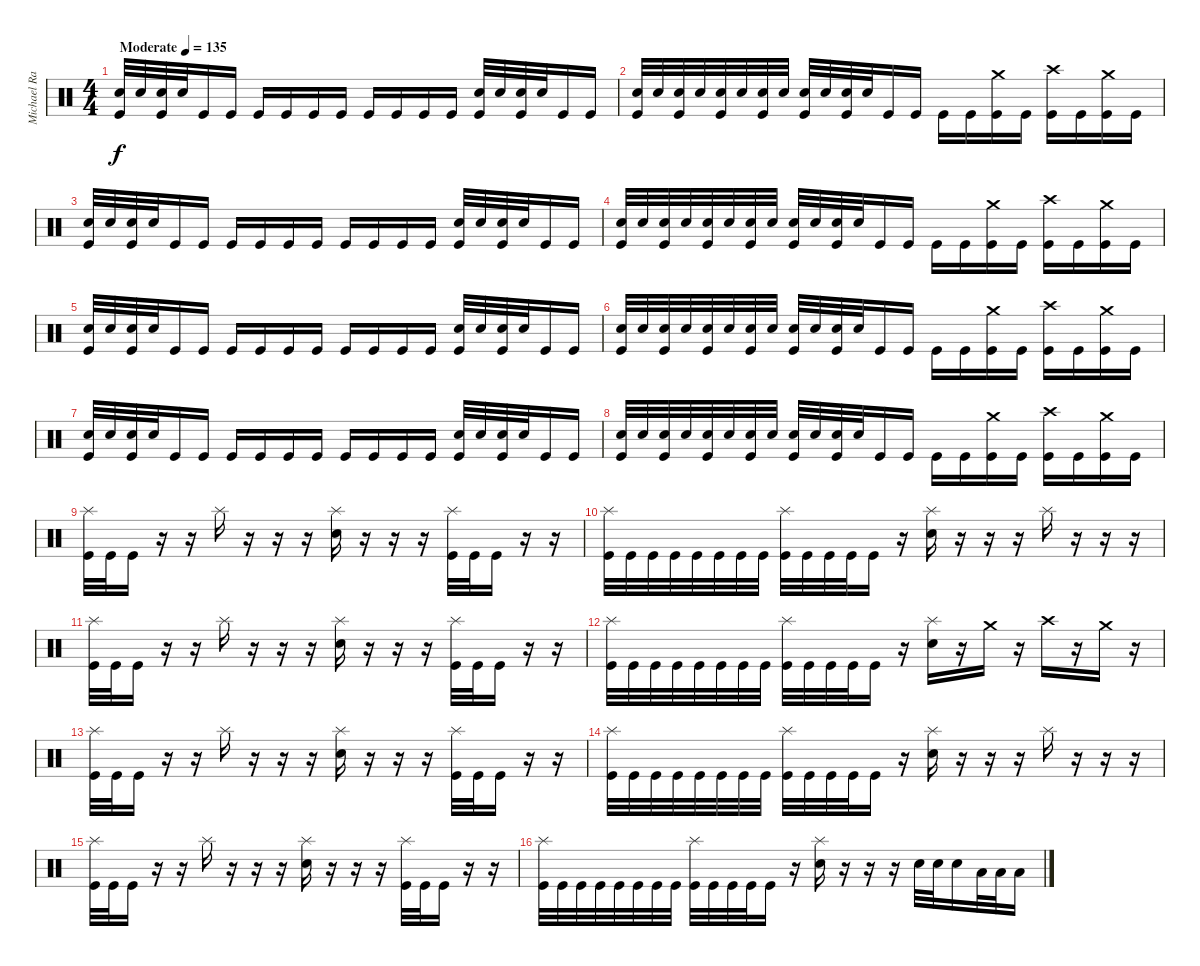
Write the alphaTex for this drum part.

\track ("Michael Ranne" "Michael Ra") {instrument percussion}
\staff {score}
\articulation defaults
\ts (4 4)
\tempo (135 "Moderate")
\clef neutral
\ks c
("Snare (hit) 2" "Kick (hit)").32{dy f} "Snare (hit) 2".32 ("Snare (hit) 2" "Kick (hit)").32 "Snare (hit) 2".32 "Kick (hit)".16 "Kick (hit)".16 "Kick (hit)".16 "Kick (hit)".16 "Kick (hit)".16 "Kick (hit)".16 "Kick (hit)".16 "Kick (hit)".16 "Kick (hit)".16 "Kick (hit)".16 ("Snare (hit) 2" "Kick (hit)").32 "Snare (hit) 2".32 ("Snare (hit) 2" "Kick (hit)").32 "Snare (hit) 2".32 "Kick (hit)".16 "Kick (hit)".16 |
("Snare (hit) 2" "Kick (hit)").32 "Snare (hit) 2".32 ("Snare (hit) 2" "Kick (hit)").32 "Snare (hit) 2".32 ("Snare (hit) 2" "Kick (hit)").32 "Snare (hit) 2".32 ("Snare (hit) 2" "Kick (hit)").32 "Snare (hit) 2".32 ("Snare (hit) 2" "Kick (hit)").32 "Snare (hit) 2".32 ("Snare (hit) 2" "Kick (hit)").32 "Snare (hit) 2".32 "Kick (hit)".16 "Kick (hit)".16 "Kick (hit)".16 "Kick (hit)".16 ("Crash medium (hit)" "Kick (hit)").16 "Kick (hit)".16 ("Crash high (hit)" "Kick (hit)").16 "Kick (hit)".16 ("Crash medium (hit)" "Kick (hit)").16 "Kick (hit)".16 |
("Snare (hit) 2" "Kick (hit)").32 "Snare (hit) 2".32 ("Snare (hit) 2" "Kick (hit)").32 "Snare (hit) 2".32 "Kick (hit)".16 "Kick (hit)".16 "Kick (hit)".16 "Kick (hit)".16 "Kick (hit)".16 "Kick (hit)".16 "Kick (hit)".16 "Kick (hit)".16 "Kick (hit)".16 "Kick (hit)".16 ("Snare (hit) 2" "Kick (hit)").32 "Snare (hit) 2".32 ("Snare (hit) 2" "Kick (hit)").32 "Snare (hit) 2".32 "Kick (hit)".16 "Kick (hit)".16 |
("Snare (hit) 2" "Kick (hit)").32 "Snare (hit) 2".32 ("Snare (hit) 2" "Kick (hit)").32 "Snare (hit) 2".32 ("Snare (hit) 2" "Kick (hit)").32 "Snare (hit) 2".32 ("Snare (hit) 2" "Kick (hit)").32 "Snare (hit) 2".32 ("Snare (hit) 2" "Kick (hit)").32 "Snare (hit) 2".32 ("Snare (hit) 2" "Kick (hit)").32 "Snare (hit) 2".32 "Kick (hit)".16 "Kick (hit)".16 "Kick (hit)".16 "Kick (hit)".16 ("Crash medium (hit)" "Kick (hit)").16 "Kick (hit)".16 ("Crash high (hit)" "Kick (hit)").16 "Kick (hit)".16 ("Crash medium (hit)" "Kick (hit)").16 "Kick (hit)".16 |
("Snare (hit) 2" "Kick (hit)").32 "Snare (hit) 2".32 ("Snare (hit) 2" "Kick (hit)").32 "Snare (hit) 2".32 "Kick (hit)".16 "Kick (hit)".16 "Kick (hit)".16 "Kick (hit)".16 "Kick (hit)".16 "Kick (hit)".16 "Kick (hit)".16 "Kick (hit)".16 "Kick (hit)".16 "Kick (hit)".16 ("Snare (hit) 2" "Kick (hit)").32 "Snare (hit) 2".32 ("Snare (hit) 2" "Kick (hit)").32 "Snare (hit) 2".32 "Kick (hit)".16 "Kick (hit)".16 |
("Snare (hit) 2" "Kick (hit)").32 "Snare (hit) 2".32 ("Snare (hit) 2" "Kick (hit)").32 "Snare (hit) 2".32 ("Snare (hit) 2" "Kick (hit)").32 "Snare (hit) 2".32 ("Snare (hit) 2" "Kick (hit)").32 "Snare (hit) 2".32 ("Snare (hit) 2" "Kick (hit)").32 "Snare (hit) 2".32 ("Snare (hit) 2" "Kick (hit)").32 "Snare (hit) 2".32 "Kick (hit)".16 "Kick (hit)".16 "Kick (hit)".16 "Kick (hit)".16 ("Crash medium (hit)" "Kick (hit)").16 "Kick (hit)".16 ("Crash high (hit)" "Kick (hit)").16 "Kick (hit)".16 ("Crash medium (hit)" "Kick (hit)").16 "Kick (hit)".16 |
("Snare (hit) 2" "Kick (hit)").32 "Snare (hit) 2".32 ("Snare (hit) 2" "Kick (hit)").32 "Snare (hit) 2".32 "Kick (hit)".16 "Kick (hit)".16 "Kick (hit)".16 "Kick (hit)".16 "Kick (hit)".16 "Kick (hit)".16 "Kick (hit)".16 "Kick (hit)".16 "Kick (hit)".16 "Kick (hit)".16 ("Snare (hit) 2" "Kick (hit)").32 "Snare (hit) 2".32 ("Snare (hit) 2" "Kick (hit)").32 "Snare (hit) 2".32 "Kick (hit)".16 "Kick (hit)".16 |
("Snare (hit) 2" "Kick (hit)").32 "Snare (hit) 2".32 ("Snare (hit) 2" "Kick (hit)").32 "Snare (hit) 2".32 ("Snare (hit) 2" "Kick (hit)").32 "Snare (hit) 2".32 ("Snare (hit) 2" "Kick (hit)").32 "Snare (hit) 2".32 ("Snare (hit) 2" "Kick (hit)").32 "Snare (hit) 2".32 ("Snare (hit) 2" "Kick (hit)").32 "Snare (hit) 2".32 "Kick (hit)".16 "Kick (hit)".16 "Kick (hit)".16 "Kick (hit)".16 ("Crash medium (hit)" "Kick (hit)").16 "Kick (hit)".16 ("Crash high (hit)" "Kick (hit)").16 "Kick (hit)".16 ("Crash medium (hit)" "Kick (hit)").16 "Kick (hit)".16 |
("Splash (hit)" "Kick (hit)").32 "Kick (hit)".32 "Kick (hit)".16 r.16 r.16 "Splash (hit)".16 r.16 r.16 r.16 ("Splash (hit)" "Snare (hit) 2").16 r.16 r.16 r.16 ("Splash (hit)" "Kick (hit)").32 "Kick (hit)".32 "Kick (hit)".16 r.16 r.16 |
("Splash (hit)" "Kick (hit)").32 "Kick (hit)".32 "Kick (hit)".32 "Kick (hit)".32 "Kick (hit)".32 "Kick (hit)".32 "Kick (hit)".32 "Kick (hit)".32 ("Splash (hit)" "Kick (hit)").32 "Kick (hit)".32 "Kick (hit)".32 "Kick (hit)".32 "Kick (hit)".16 r.16 ("Splash (hit)" "Snare (hit) 2").16 r.16 r.16 r.16 "Splash (hit)".16 r.16 r.16 r.16 |
("Splash (hit)" "Kick (hit)").32 "Kick (hit)".32 "Kick (hit)".16 r.16 r.16 "Splash (hit)".16 r.16 r.16 r.16 ("Splash (hit)" "Snare (hit) 2").16 r.16 r.16 r.16 ("Splash (hit)" "Kick (hit)").32 "Kick (hit)".32 "Kick (hit)".16 r.16 r.16 |
("Splash (hit)" "Kick (hit)").32 "Kick (hit)".32 "Kick (hit)".32 "Kick (hit)".32 "Kick (hit)".32 "Kick (hit)".32 "Kick (hit)".32 "Kick (hit)".32 ("Splash (hit)" "Kick (hit)").32 "Kick (hit)".32 "Kick (hit)".32 "Kick (hit)".32 "Kick (hit)".16 r.16 ("Splash (hit)" "Snare (hit) 2").16 r.16 "Crash medium (hit)".16 r.16 "Crash high (hit)".16 r.16 "Crash medium (hit)".16 r.16 |
("Splash (hit)" "Kick (hit)").32 "Kick (hit)".32 "Kick (hit)".16 r.16 r.16 "Splash (hit)".16 r.16 r.16 r.16 ("Splash (hit)" "Snare (hit) 2").16 r.16 r.16 r.16 ("Splash (hit)" "Kick (hit)").32 "Kick (hit)".32 "Kick (hit)".16 r.16 r.16 |
("Splash (hit)" "Kick (hit)").32 "Kick (hit)".32 "Kick (hit)".32 "Kick (hit)".32 "Kick (hit)".32 "Kick (hit)".32 "Kick (hit)".32 "Kick (hit)".32 ("Splash (hit)" "Kick (hit)").32 "Kick (hit)".32 "Kick (hit)".32 "Kick (hit)".32 "Kick (hit)".16 r.16 ("Splash (hit)" "Snare (hit) 2").16 r.16 r.16 r.16 "Splash (hit)".16 r.16 r.16 r.16 |
("Splash (hit)" "Kick (hit)").32 "Kick (hit)".32 "Kick (hit)".16 r.16 r.16 "Splash (hit)".16 r.16 r.16 r.16 ("Splash (hit)" "Snare (hit) 2").16 r.16 r.16 r.16 ("Splash (hit)" "Kick (hit)").32 "Kick (hit)".32 "Kick (hit)".16 r.16 r.16 |
("Splash (hit)" "Kick (hit)").32 "Kick (hit)".32 "Kick (hit)".32 "Kick (hit)".32 "Kick (hit)".32 "Kick (hit)".32 "Kick (hit)".32 "Kick (hit)".32 ("Splash (hit)" "Kick (hit)").32 "Kick (hit)".32 "Kick (hit)".32 "Kick (hit)".32 "Kick (hit)".16 r.16 ("Splash (hit)" "Snare (hit) 2").16 r.16 r.16 r.16 "Snare (hit) 2".32 "Snare (hit) 2".32 "Snare (hit) 2".16 "Low Tom (hit)".32 "Low Tom (hit)".32 "Low Tom (hit)".16
